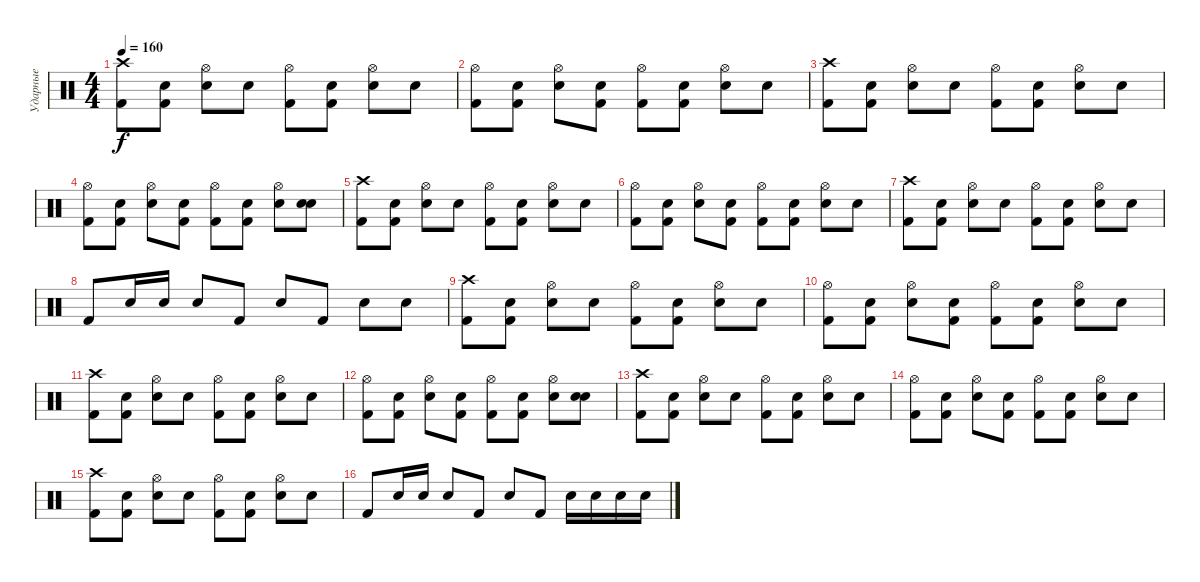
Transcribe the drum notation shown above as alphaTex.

\track ("Ударные" "Ударные") {instrument percussion}
\staff {score}
\articulation defaults
\ts (4 4)
\tempo 160
\clef neutral
\ks c
("Crash high (hit)" "Kick (hit) 2").8{dy f} ("Snare (hit)" "Kick (hit) 2").8 ("Hi-Hat (open)" "Electric Snare (hit)").8 "Snare (hit)".8 ("Hi-Hat (open)" "Kick (hit) 2").8 ("Snare (hit)" "Kick (hit) 2").8 ("Hi-Hat (open)" "Electric Snare (hit)").8 "Snare (hit)".8 |
("Hi-Hat (open)" "Kick (hit) 2").8 ("Snare (hit)" "Kick (hit) 2").8 ("Hi-Hat (open)" "Electric Snare (hit)").8 ("Snare (hit)" "Kick (hit) 2").8 ("Hi-Hat (open)" "Kick (hit) 2").8 ("Snare (hit)" "Kick (hit) 2").8 ("Hi-Hat (open)" "Electric Snare (hit)").8 "Snare (hit)".8 |
("Crash high (hit)" "Kick (hit) 2").8 ("Snare (hit)" "Kick (hit) 2").8 ("Hi-Hat (open)" "Electric Snare (hit)").8 "Snare (hit)".8 ("Hi-Hat (open)" "Kick (hit) 2").8 ("Snare (hit)" "Kick (hit) 2").8 ("Hi-Hat (open)" "Electric Snare (hit)").8 "Snare (hit)".8 |
("Hi-Hat (open)" "Kick (hit) 2").8 ("Snare (hit)" "Kick (hit) 2").8 ("Hi-Hat (open)" "Electric Snare (hit)").8 ("Snare (hit)" "Kick (hit) 2").8 ("Hi-Hat (open)" "Kick (hit) 2").8 ("Snare (hit)" "Kick (hit) 2").8 ("Hi-Hat (open)" "Electric Snare (hit)").8 ("Snare (hit)" "Electric Snare (hit)").8 |
("Crash high (hit)" "Kick (hit) 2").8 ("Snare (hit)" "Kick (hit) 2").8 ("Hi-Hat (open)" "Electric Snare (hit)").8 "Snare (hit)".8 ("Hi-Hat (open)" "Kick (hit) 2").8 ("Snare (hit)" "Kick (hit) 2").8 ("Hi-Hat (open)" "Electric Snare (hit)").8 "Snare (hit)".8 |
("Hi-Hat (open)" "Kick (hit) 2").8 ("Snare (hit)" "Kick (hit) 2").8 ("Hi-Hat (open)" "Electric Snare (hit)").8 ("Snare (hit)" "Kick (hit) 2").8 ("Hi-Hat (open)" "Kick (hit) 2").8 ("Snare (hit)" "Kick (hit) 2").8 ("Hi-Hat (open)" "Electric Snare (hit)").8 "Snare (hit)".8 |
("Crash high (hit)" "Kick (hit) 2").8 ("Snare (hit)" "Kick (hit) 2").8 ("Hi-Hat (open)" "Electric Snare (hit)").8 "Snare (hit)".8 ("Hi-Hat (open)" "Kick (hit) 2").8 ("Snare (hit)" "Kick (hit) 2").8 ("Hi-Hat (open)" "Electric Snare (hit)").8 "Snare (hit)".8 |
"Kick (hit) 2".8 "Electric Snare (hit)".16 "Electric Snare (hit)".16 "Electric Snare (hit)".8 "Kick (hit) 2".8 "Electric Snare (hit)".8 "Kick (hit) 2".8 "Electric Snare (hit)".8 "Electric Snare (hit)".8 |
("Crash high (hit)" "Kick (hit) 2").8 ("Snare (hit)" "Kick (hit) 2").8 ("Hi-Hat (open)" "Electric Snare (hit)").8 "Snare (hit)".8 ("Hi-Hat (open)" "Kick (hit) 2").8 ("Snare (hit)" "Kick (hit) 2").8 ("Hi-Hat (open)" "Electric Snare (hit)").8 "Snare (hit)".8 |
("Hi-Hat (open)" "Kick (hit) 2").8 ("Snare (hit)" "Kick (hit) 2").8 ("Hi-Hat (open)" "Electric Snare (hit)").8 ("Snare (hit)" "Kick (hit) 2").8 ("Hi-Hat (open)" "Kick (hit) 2").8 ("Snare (hit)" "Kick (hit) 2").8 ("Hi-Hat (open)" "Electric Snare (hit)").8 "Snare (hit)".8 |
("Crash high (hit)" "Kick (hit) 2").8 ("Snare (hit)" "Kick (hit) 2").8 ("Hi-Hat (open)" "Electric Snare (hit)").8 "Snare (hit)".8 ("Hi-Hat (open)" "Kick (hit) 2").8 ("Snare (hit)" "Kick (hit) 2").8 ("Hi-Hat (open)" "Electric Snare (hit)").8 "Snare (hit)".8 |
("Hi-Hat (open)" "Kick (hit) 2").8 ("Snare (hit)" "Kick (hit) 2").8 ("Hi-Hat (open)" "Electric Snare (hit)").8 ("Snare (hit)" "Kick (hit) 2").8 ("Hi-Hat (open)" "Kick (hit) 2").8 ("Snare (hit)" "Kick (hit) 2").8 ("Hi-Hat (open)" "Electric Snare (hit)").8 ("Snare (hit)" "Electric Snare (hit)").8 |
("Crash high (hit)" "Kick (hit) 2").8 ("Snare (hit)" "Kick (hit) 2").8 ("Hi-Hat (open)" "Electric Snare (hit)").8 "Snare (hit)".8 ("Hi-Hat (open)" "Kick (hit) 2").8 ("Snare (hit)" "Kick (hit) 2").8 ("Hi-Hat (open)" "Electric Snare (hit)").8 "Snare (hit)".8 |
("Hi-Hat (open)" "Kick (hit) 2").8 ("Snare (hit)" "Kick (hit) 2").8 ("Hi-Hat (open)" "Electric Snare (hit)").8 ("Snare (hit)" "Kick (hit) 2").8 ("Hi-Hat (open)" "Kick (hit) 2").8 ("Snare (hit)" "Kick (hit) 2").8 ("Hi-Hat (open)" "Electric Snare (hit)").8 "Snare (hit)".8 |
("Crash high (hit)" "Kick (hit) 2").8 ("Snare (hit)" "Kick (hit) 2").8 ("Hi-Hat (open)" "Electric Snare (hit)").8 "Snare (hit)".8 ("Hi-Hat (open)" "Kick (hit) 2").8 ("Snare (hit)" "Kick (hit) 2").8 ("Hi-Hat (open)" "Electric Snare (hit)").8 "Snare (hit)".8 |
"Kick (hit) 2".8 "Electric Snare (hit)".16 "Electric Snare (hit)".16 "Electric Snare (hit)".8 "Kick (hit) 2".8 "Electric Snare (hit)".8 "Kick (hit) 2".8 "Electric Snare (hit)".16 "Electric Snare (hit)".16 "Electric Snare (hit)".16 "Electric Snare (hit)".16
